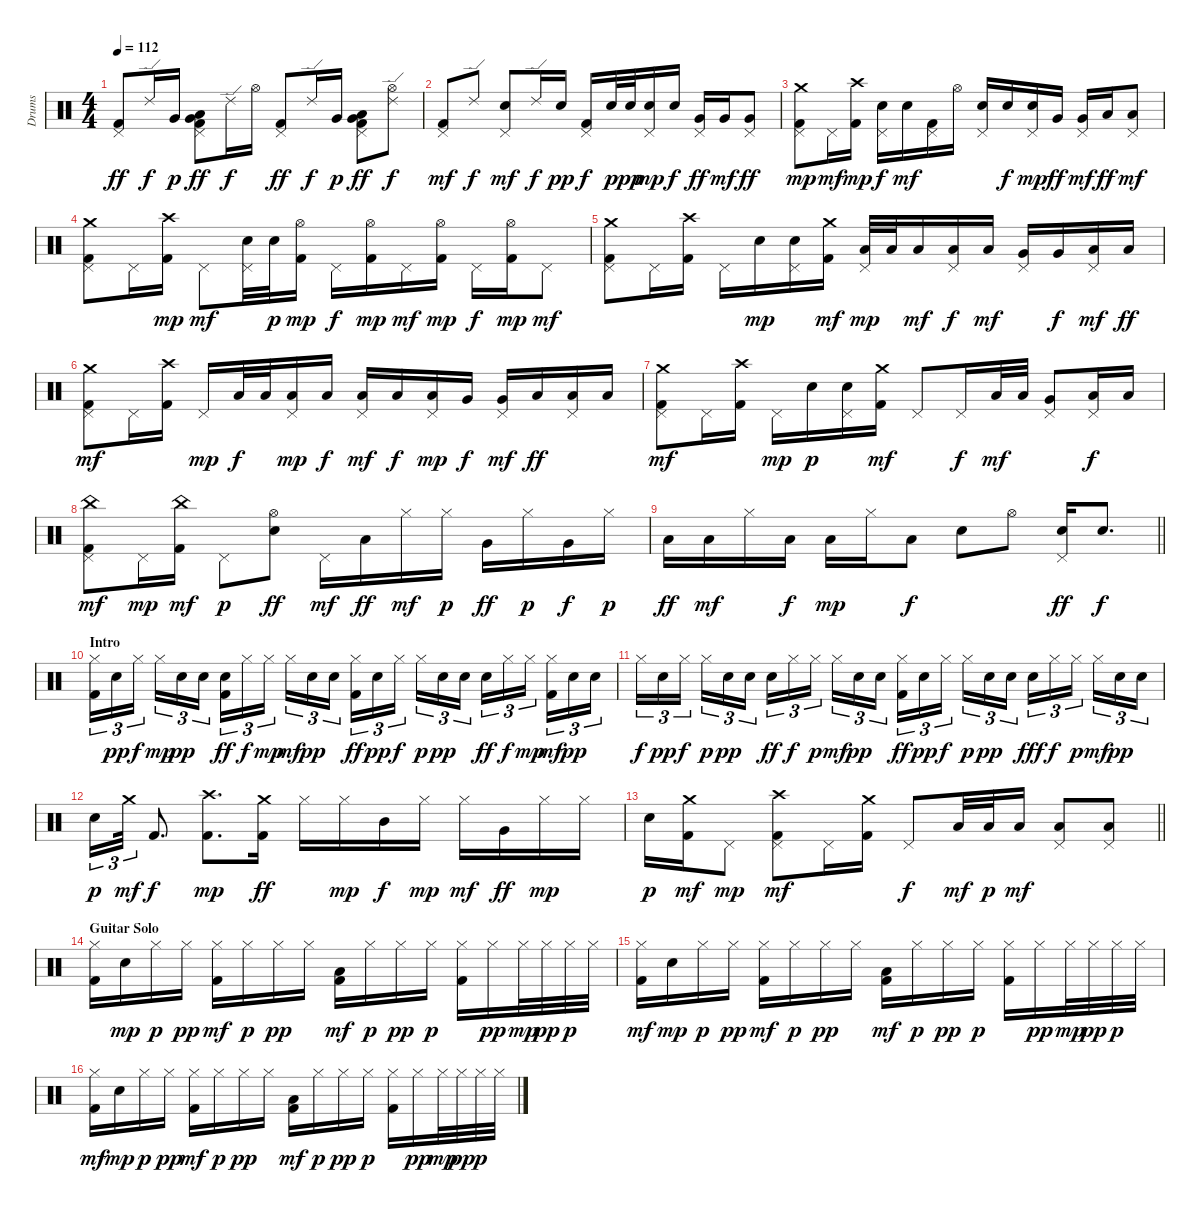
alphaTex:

\track ("Drums" "Drums") {instrument percussion}
\staff {score}
\articulation defaults
\ts (4 4)
\tempo 112
\clef neutral
\ks c
("Kick (hit) 2" "Pedal Hi-Hat (hit)").8{dy ff} "Ride (edge) 2".16{dy f} "Very Low Tom (hit)".16{dy p} ("Kick (hit) 2" "Pedal Hi-Hat (hit)" "Very Low Tom (hit)" "Low Floor Tom (hit)").8{dy ff} "Ride (edge) 2".16{dy f} "Hi-Hat (open)".16 ("Kick (hit) 2" "Pedal Hi-Hat (hit)").8{dy ff} "Ride (edge) 2".16{dy f} "Very Low Tom (hit)".16{dy p} ("Kick (hit) 2" "Pedal Hi-Hat (hit)" "Very Low Tom (hit)" "Low Floor Tom (hit)").8{dy ff} ("Hi-Hat (open)" "Ride (edge) 2").8{dy f} |
("Kick (hit) 2" "Pedal Hi-Hat (hit)").8{dy mf} "Ride (edge) 2".8{dy f} ("Snare (hit) 2" "Pedal Hi-Hat (hit)").8{dy mf} "Ride (edge) 2".16{dy f} "Snare (hit) 2".16{dy pp} ("Kick (hit) 2" "Pedal Hi-Hat (hit)").16{dy f} "Snare (hit) 2".32{dy p} "Snare (hit) 2".32{dy pp} ("Snare (hit) 2" "Pedal Hi-Hat (hit)").16{dy mp} "Snare (hit) 2".16{dy f} ("Pedal Hi-Hat (hit)" "Very Low Tom (hit)").16{dy ff} "Very Low Tom (hit)".16{dy mf} ("Pedal Hi-Hat (hit)" "Very Low Tom (hit)").8{dy ff} |
("Kick (hit) 2" "Pedal Hi-Hat (hit)" "Crash medium (hit)").8{dy mp} "Pedal Hi-Hat (hit)".16{dy mf} ("Kick (hit) 2" "Crash high (hit)").16{dy mp} ("Snare (hit) 2" "Pedal Hi-Hat (hit)").16{dy f} "Snare (hit) 2".16{dy mf} ("Kick (hit) 2" "Pedal Hi-Hat (hit)").16 "Hi-Hat (open)".16 ("Snare (hit) 2" "Pedal Hi-Hat (hit)").16 "Snare (hit) 2".16{dy f} ("Snare (hit) 2" "Pedal Hi-Hat (hit)").16{dy mp} "Very Low Tom (hit)".16{dy ff} ("Pedal Hi-Hat (hit)" "Very Low Tom (hit)").16{dy mf} "Low Floor Tom (hit)".16{dy ff} ("Pedal Hi-Hat (hit)" "Low Floor Tom (hit)").8{dy mf} |
("Kick (hit) 2" "Pedal Hi-Hat (hit)" "Crash medium (hit)").8 "Pedal Hi-Hat (hit)".16 ("Kick (hit) 2" "Crash high (hit)").16{dy mp} "Pedal Hi-Hat (hit)".8{dy mf} ("Snare (hit) 2" "Pedal Hi-Hat (hit)").32 "Snare (hit) 2".32{dy p} ("Kick (hit) 2" "Hi-Hat (open)").16{dy mp} "Pedal Hi-Hat (hit)".16{dy f} ("Kick (hit) 2" "Hi-Hat (open)").16{dy mp} "Pedal Hi-Hat (hit)".16{dy mf} ("Kick (hit) 2" "Hi-Hat (open)").16{dy mp} "Pedal Hi-Hat (hit)".16{dy f} ("Kick (hit) 2" "Hi-Hat (open)").16{dy mp} "Pedal Hi-Hat (hit)".8{dy mf} |
("Kick (hit) 2" "Pedal Hi-Hat (hit)" "Crash medium (hit)").8 "Pedal Hi-Hat (hit)".16 ("Kick (hit) 2" "Crash high (hit)").16 "Pedal Hi-Hat (hit)".16 "Snare (hit) 2".16{dy mp} ("Snare (hit) 2" "Pedal Hi-Hat (hit)").16 ("Kick (hit) 2" "Crash medium (hit)").16{dy mf} ("Pedal Hi-Hat (hit)" "Low Tom (hit)").32{dy mp} "Low Tom (hit)".32 "Low Tom (hit)".16{dy mf} ("Pedal Hi-Hat (hit)" "Low Tom (hit)").16{dy f} "Low Tom (hit)".16{dy mf} ("Pedal Hi-Hat (hit)" "Very Low Tom (hit)").16 "Very Low Tom (hit)".16{dy f} ("Pedal Hi-Hat (hit)" "Low Floor Tom (hit)").16{dy mf} "Low Floor Tom (hit)".16{dy ff} |
("Kick (hit) 2" "Pedal Hi-Hat (hit)" "Crash medium (hit)").8{dy mf} "Pedal Hi-Hat (hit)".16 ("Kick (hit) 2" "Crash high (hit)").16 "Pedal Hi-Hat (hit)".16{dy mp} "Low Floor Tom (hit)".32{dy f} "Low Floor Tom (hit)".32 ("Pedal Hi-Hat (hit)" "Low Floor Tom (hit)").16{dy mp} "Low Floor Tom (hit)".16{dy f} ("Pedal Hi-Hat (hit)" "Low Floor Tom (hit)").16{dy mf} "Low Floor Tom (hit)".16{dy f} ("Pedal Hi-Hat (hit)" "Low Floor Tom (hit)").16{dy mp} "Very Low Tom (hit)".16{dy f} ("Pedal Hi-Hat (hit)" "Very Low Tom (hit)").16{dy mf} "Low Tom (hit)".16{dy ff} ("Pedal Hi-Hat (hit)" "Low Tom (hit)").16 "Low Tom (hit)".16 |
("Kick (hit) 2" "Pedal Hi-Hat (hit)" "Crash medium (hit)").8{dy mf} "Pedal Hi-Hat (hit)".16 ("Kick (hit) 2" "Crash high (hit)").16 "Pedal Hi-Hat (hit)".16{dy mp} "Snare (hit) 2".16{dy p} ("Snare (hit) 2" "Pedal Hi-Hat (hit)").16 ("Kick (hit) 2" "Crash medium (hit)").16{dy mf} "Pedal Hi-Hat (hit)".8 "Pedal Hi-Hat (hit)".16{dy f} "Low Tom (hit)".32{dy mf} "Low Tom (hit)".32 ("Pedal Hi-Hat (hit)" "Very Low Tom (hit)").8 ("Pedal Hi-Hat (hit)" "Low Floor Tom (hit)").16{dy f} "Low Floor Tom (hit)".16 |
("Kick (hit) 2" "Pedal Hi-Hat (hit)" "China (hit)").8{dy mf} "Pedal Hi-Hat (hit)".16{dy mp} ("Kick (hit) 2" "China (hit)").16{dy mf} "Pedal Hi-Hat (hit)".8{dy p} ("Snare (hit) 2" "Hi-Hat (open)").8{dy ff} "Pedal Hi-Hat (hit)".16{dy mf} "Low Tom (hit)".16{dy ff} "Hi-Hat (closed)".16{dy mf} "Hi-Hat (closed)".16{dy p} "Very Low Tom (hit)".16{dy ff} "Hi-Hat (closed)".16{dy p} "Very Low Tom (hit)".16{dy f} "Hi-Hat (closed)".16{dy p} |
\barLineRight lightlight "Low Floor Tom (hit)".16{dy ff} "Low Floor Tom (hit)".16{dy mf} "Hi-Hat (closed)".16 "Low Floor Tom (hit)".16{dy f} "Low Floor Tom (hit)".16{dy mp} "Hi-Hat (closed)".16 "Low Floor Tom (hit)".8{dy f} "Snare (hit) 2".8 "Hi-Hat (open)".8
("Snare (hit) 2" "Pedal Hi-Hat (hit)").16{dy ff} "Snare (hit) 2".8{d dy f} |
\section ("" "Intro")
("Kick (hit) 2" "Hi-Hat (closed)").16{tu (3 2)} "Snare (hit) 2".16{tu (3 2) dy pp} "Hi-Hat (closed)".16{tu (3 2) dy f beam splitsecondary} "Hi-Hat (closed)".16{tu (3 2) dy mp} "Snare (hit) 2".16{tu (3 2) dy pp} "Snare (hit) 2".16{tu (3 2)} ("Kick (hit) 2" "Snare (hit) 2").16{tu (3 2) dy ff} "Hi-Hat (closed)".16{tu (3 2) dy f} "Hi-Hat (closed)".16{tu (3 2) dy mp beam splitsecondary} "Hi-Hat (closed)".16{tu (3 2) dy mf} "Snare (hit) 2".16{tu (3 2) dy pp} "Snare (hit) 2".16{tu (3 2)} ("Kick (hit) 2" "Hi-Hat (closed)").16{tu (3 2) dy ff} "Snare (hit) 2".16{tu (3 2) dy pp} "Hi-Hat (closed)".16{tu (3 2) dy f beam splitsecondary} "Hi-Hat (closed)".16{tu (3 2) dy p} "Snare (hit) 2".16{tu (3 2) dy pp} "Snare (hit) 2".16{tu (3 2)} "Snare (hit) 2".16{tu (3 2) dy ff} "Hi-Hat (closed)".16{tu (3 2) dy f} "Hi-Hat (closed)".16{tu (3 2) dy mp beam splitsecondary} ("Kick (hit) 2" "Hi-Hat (closed)").16{tu (3 2) dy mf} "Snare (hit) 2".16{tu (3 2) dy pp} "Snare (hit) 2".16{tu (3 2)} |
"Hi-Hat (closed)".16{tu (3 2) dy f} "Snare (hit) 2".16{tu (3 2) dy pp} "Hi-Hat (closed)".16{tu (3 2) dy f beam splitsecondary} "Hi-Hat (closed)".16{tu (3 2) dy p} "Snare (hit) 2".16{tu (3 2) dy pp} "Snare (hit) 2".16{tu (3 2)} "Snare (hit) 2".16{tu (3 2) dy ff} "Hi-Hat (closed)".16{tu (3 2) dy f} "Hi-Hat (closed)".16{tu (3 2) dy p beam splitsecondary} "Hi-Hat (closed)".16{tu (3 2) dy mf} "Snare (hit) 2".16{tu (3 2) dy pp} "Snare (hit) 2".16{tu (3 2)} ("Kick (hit) 2" "Hi-Hat (closed)").16{tu (3 2) dy ff} "Snare (hit) 2".16{tu (3 2) dy pp} "Hi-Hat (closed)".16{tu (3 2) dy f beam splitsecondary} "Hi-Hat (closed)".16{tu (3 2) dy p} "Snare (hit) 2".16{tu (3 2) dy pp} "Snare (hit) 2".16{tu (3 2)} "Snare (hit) 2".16{tu (3 2) dy fff} "Hi-Hat (closed)".16{tu (3 2) dy f} "Hi-Hat (closed)".16{tu (3 2) dy p beam splitsecondary} "Hi-Hat (closed)".16{tu (3 2) dy mf} "Snare (hit) 2".16{tu (3 2) dy pp} "Snare (hit) 2".16{tu (3 2)} |
"Snare (hit) 2".16{tu (3 2) dy p} "Crash medium (hit)".32{tu (3 2) dy mf} "Kick (hit) 2".8{d dy f} ("Kick (hit) 2" "Crash high (hit)").8{d dy mp} ("Kick (hit) 2" "Crash medium (hit)").16{dy ff} "Hi-Hat (closed)".16 "Hi-Hat (closed)".16{dy mp} "Mid Tom (hit)".16{dy f} "Hi-Hat (closed)".16{dy mp} "Hi-Hat (closed)".16{dy mf} "Very Low Tom (hit)".16{dy ff} "Hi-Hat (closed)".16{dy mp} "Hi-Hat (closed)".16 |
\barLineRight lightlight "Snare (hit) 2".16{dy p}
("Kick (hit) 2" "Crash medium (hit)").16{dy mf} "Pedal Hi-Hat (hit)".8{dy mp} ("Kick (hit) 2" "Pedal Hi-Hat (hit)" "Crash high (hit)").8{dy mf} "Pedal Hi-Hat (hit)".16 ("Kick (hit) 2" "Crash medium (hit)").16 "Pedal Hi-Hat (hit)".8{dy f} "Low Tom (hit)".32{dy mf} "Low Tom (hit)".32{dy p} "Low Tom (hit)".16{dy mf} ("Pedal Hi-Hat (hit)" "Low Floor Tom (hit)").8 ("Pedal Hi-Hat (hit)" "Low Floor Tom (hit)").8 |
\section ("" "Guitar Solo")
("Kick (hit) 2" "Hi-Hat (closed)").16 "Snare (hit) 2".16{dy mp} "Hi-Hat (closed)".16{dy p} "Hi-Hat (closed)".16{dy pp} ("Kick (hit) 2" "Hi-Hat (closed)").16{dy mf} "Hi-Hat (closed)".16{dy p} "Hi-Hat (closed)".16{dy pp} "Hi-Hat (closed)".16 ("Kick (hit) 2" "Low Floor Tom (hit)").16{dy mf} "Hi-Hat (closed)".16{dy p} "Hi-Hat (closed)".16{dy pp} "Hi-Hat (closed)".16{dy p} ("Kick (hit) 2" "Hi-Hat (closed)").16 "Hi-Hat (closed)".16{dy pp} "Hi-Hat (closed)".32{dy mp} "Hi-Hat (closed)".32{dy pp} "Hi-Hat (closed)".32{dy p} "Hi-Hat (closed)".32 |
("Kick (hit) 2" "Hi-Hat (closed)").16{dy mf} "Snare (hit) 2".16{dy mp} "Hi-Hat (closed)".16{dy p} "Hi-Hat (closed)".16{dy pp} ("Kick (hit) 2" "Hi-Hat (closed)").16{dy mf} "Hi-Hat (closed)".16{dy p} "Hi-Hat (closed)".16{dy pp} "Hi-Hat (closed)".16 ("Kick (hit) 2" "Low Floor Tom (hit)").16{dy mf} "Hi-Hat (closed)".16{dy p} "Hi-Hat (closed)".16{dy pp} "Hi-Hat (closed)".16{dy p} ("Kick (hit) 2" "Hi-Hat (closed)").16 "Hi-Hat (closed)".16{dy pp} "Hi-Hat (closed)".32{dy mp} "Hi-Hat (closed)".32{dy pp} "Hi-Hat (closed)".32{dy p} "Hi-Hat (closed)".32 |
("Kick (hit) 2" "Hi-Hat (closed)").16{dy mf} "Snare (hit) 2".16{dy mp} "Hi-Hat (closed)".16{dy p} "Hi-Hat (closed)".16{dy pp} ("Kick (hit) 2" "Hi-Hat (closed)").16{dy mf} "Hi-Hat (closed)".16{dy p} "Hi-Hat (closed)".16{dy pp} "Hi-Hat (closed)".16 ("Kick (hit) 2" "Low Floor Tom (hit)").16{dy mf} "Hi-Hat (closed)".16{dy p} "Hi-Hat (closed)".16{dy pp} "Hi-Hat (closed)".16{dy p} ("Kick (hit) 2" "Hi-Hat (closed)").16 "Hi-Hat (closed)".16{dy pp} "Hi-Hat (closed)".32{dy mp} "Hi-Hat (closed)".32{dy pp} "Hi-Hat (closed)".32{dy p} "Hi-Hat (closed)".32
